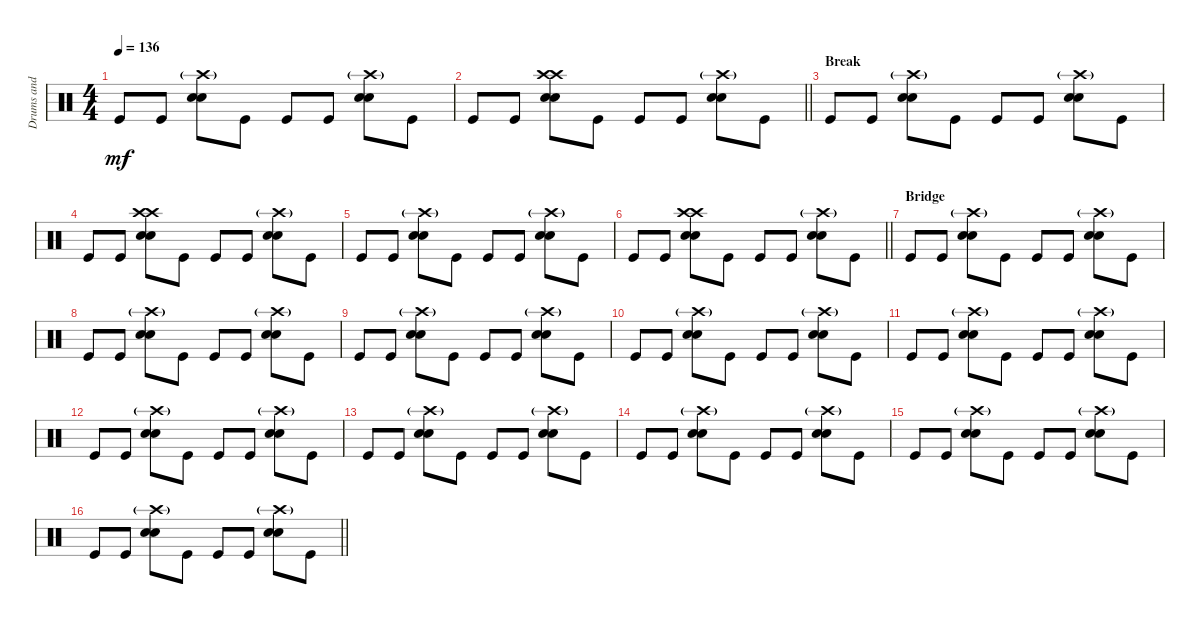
\track ("Drums and Percussions" "Drums and ") {instrument percussion}
\staff {score}
\articulation defaults
\ts (4 4)
\tempo 136
\clef neutral
\ks c "Kick (hit)".8{dy mf} "Kick (hit)".8
("Crash high (hit)"{g} "Electric Snare (hit)" "Electric Snare (hit)").8 "Kick (hit)".8 "Kick (hit)".8 "Kick (hit)".8 ("Crash high (hit)"{g} "Electric Snare (hit)" "Electric Snare (hit)").8 "Kick (hit)".8 |
\barLineRight lightlight "Kick (hit)".8 "Kick (hit)".8
("Crash high (hit)" "Crash high (hit)" "Electric Snare (hit)" "Electric Snare (hit)").8 "Kick (hit)".8 "Kick (hit)".8 "Kick (hit)".8 ("Crash high (hit)"{g} "Electric Snare (hit)" "Electric Snare (hit)").8 "Kick (hit)".8 |
\section ("" "Break")
"Kick (hit)".8 "Kick (hit)".8 ("Crash high (hit)"{g} "Electric Snare (hit)" "Electric Snare (hit)").8 "Kick (hit)".8 "Kick (hit)".8 "Kick (hit)".8 ("Crash high (hit)"{g} "Electric Snare (hit)" "Electric Snare (hit)").8 "Kick (hit)".8 |
"Kick (hit)".8 "Kick (hit)".8 ("Crash high (hit)" "Crash high (hit)" "Electric Snare (hit)" "Electric Snare (hit)").8 "Kick (hit)".8 "Kick (hit)".8 "Kick (hit)".8 ("Crash high (hit)"{g} "Electric Snare (hit)" "Electric Snare (hit)").8 "Kick (hit)".8 |
"Kick (hit)".8 "Kick (hit)".8 ("Crash high (hit)"{g} "Electric Snare (hit)" "Electric Snare (hit)").8 "Kick (hit)".8 "Kick (hit)".8 "Kick (hit)".8 ("Crash high (hit)"{g} "Electric Snare (hit)" "Electric Snare (hit)").8 "Kick (hit)".8 |
\barLineRight lightlight "Kick (hit)".8 "Kick (hit)".8
("Crash high (hit)" "Crash high (hit)" "Electric Snare (hit)" "Electric Snare (hit)").8 "Kick (hit)".8 "Kick (hit)".8 "Kick (hit)".8 ("Crash high (hit)"{g} "Electric Snare (hit)" "Electric Snare (hit)").8 "Kick (hit)".8 |
\section ("" "Bridge")
"Kick (hit)".8 "Kick (hit)".8 ("Crash high (hit)"{g} "Electric Snare (hit)" "Electric Snare (hit)").8 "Kick (hit)".8 "Kick (hit)".8 "Kick (hit)".8 ("Crash high (hit)"{g} "Electric Snare (hit)" "Electric Snare (hit)").8 "Kick (hit)".8 |
"Kick (hit)".8 "Kick (hit)".8 ("Crash high (hit)"{g} "Electric Snare (hit)" "Electric Snare (hit)").8 "Kick (hit)".8 "Kick (hit)".8 "Kick (hit)".8 ("Crash high (hit)"{g} "Electric Snare (hit)" "Electric Snare (hit)").8 "Kick (hit)".8 |
"Kick (hit)".8 "Kick (hit)".8 ("Crash high (hit)"{g} "Electric Snare (hit)" "Electric Snare (hit)").8 "Kick (hit)".8 "Kick (hit)".8 "Kick (hit)".8 ("Crash high (hit)"{g} "Electric Snare (hit)" "Electric Snare (hit)").8 "Kick (hit)".8 |
"Kick (hit)".8 "Kick (hit)".8 ("Crash high (hit)"{g} "Electric Snare (hit)" "Electric Snare (hit)").8 "Kick (hit)".8 "Kick (hit)".8 "Kick (hit)".8 ("Crash high (hit)"{g} "Electric Snare (hit)" "Electric Snare (hit)").8 "Kick (hit)".8 |
"Kick (hit)".8 "Kick (hit)".8 ("Crash high (hit)"{g} "Electric Snare (hit)" "Electric Snare (hit)").8 "Kick (hit)".8 "Kick (hit)".8 "Kick (hit)".8 ("Crash high (hit)"{g} "Electric Snare (hit)" "Electric Snare (hit)").8 "Kick (hit)".8 |
"Kick (hit)".8 "Kick (hit)".8 ("Crash high (hit)"{g} "Electric Snare (hit)" "Electric Snare (hit)").8 "Kick (hit)".8 "Kick (hit)".8 "Kick (hit)".8 ("Crash high (hit)"{g} "Electric Snare (hit)" "Electric Snare (hit)").8 "Kick (hit)".8 |
"Kick (hit)".8 "Kick (hit)".8 ("Crash high (hit)"{g} "Electric Snare (hit)" "Electric Snare (hit)").8 "Kick (hit)".8 "Kick (hit)".8 "Kick (hit)".8 ("Crash high (hit)"{g} "Electric Snare (hit)" "Electric Snare (hit)").8 "Kick (hit)".8 |
"Kick (hit)".8 "Kick (hit)".8 ("Crash high (hit)"{g} "Electric Snare (hit)" "Electric Snare (hit)").8 "Kick (hit)".8 "Kick (hit)".8 "Kick (hit)".8 ("Crash high (hit)"{g} "Electric Snare (hit)" "Electric Snare (hit)").8 "Kick (hit)".8 |
"Kick (hit)".8 "Kick (hit)".8 ("Crash high (hit)"{g} "Electric Snare (hit)" "Electric Snare (hit)").8 "Kick (hit)".8 "Kick (hit)".8 "Kick (hit)".8 ("Crash high (hit)"{g} "Electric Snare (hit)" "Electric Snare (hit)").8 "Kick (hit)".8 |
\barLineRight lightlight "Kick (hit)".8 "Kick (hit)".8
("Crash high (hit)"{g} "Electric Snare (hit)" "Electric Snare (hit)").8 "Kick (hit)".8 "Kick (hit)".8 "Kick (hit)".8 ("Crash high (hit)"{g} "Electric Snare (hit)" "Electric Snare (hit)").8 "Kick (hit)".8
